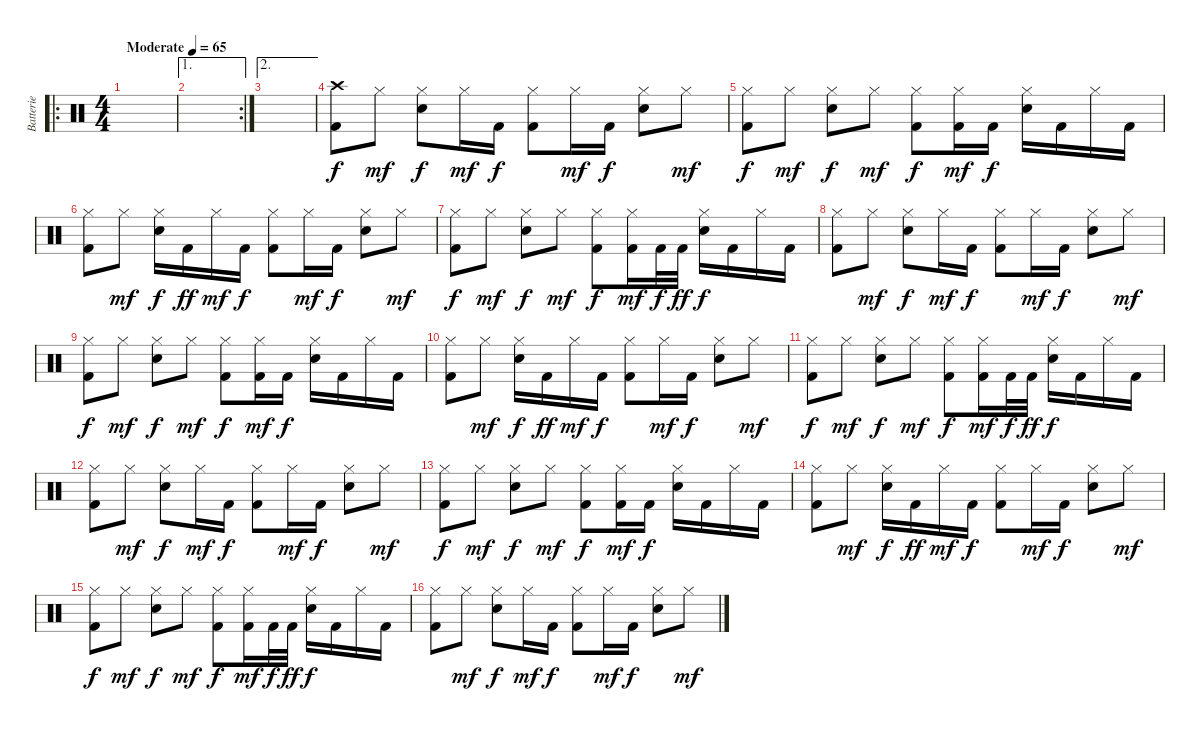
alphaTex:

\track ("Batterie" "Batterie") {instrument percussion}
\staff {score}
\articulation defaults
\ro
\ts (4 4)
\tempo (65 "Moderate")
\clef neutral
\ks c
|
\ae 1
\rc 2
|
\ae 2
|
("Crash high (hit)" "Kick (hit) 2").8 "Hi-Hat (closed)".8{dy mf} ("Hi-Hat (closed)" "Electric Snare (hit)").8{dy f} "Hi-Hat (closed)".16{dy mf} "Kick (hit) 2".16{dy f} ("Hi-Hat (closed)" "Kick (hit) 2").8 "Hi-Hat (closed)".16{dy mf} "Kick (hit) 2".16{dy f} ("Hi-Hat (closed)" "Electric Snare (hit)").8 "Hi-Hat (closed)".8{dy mf} |
("Hi-Hat (closed)" "Kick (hit) 2").8{dy f} "Hi-Hat (closed)".8{dy mf} ("Hi-Hat (closed)" "Electric Snare (hit)").8{dy f} "Hi-Hat (closed)".8{dy mf} ("Hi-Hat (closed)" "Kick (hit) 2").8{dy f} ("Hi-Hat (closed)" "Kick (hit) 2").16{dy mf} "Kick (hit) 2".16{dy f} ("Hi-Hat (closed)" "Electric Snare (hit)").16 "Kick (hit) 2".16 "Hi-Hat (closed)".16 "Kick (hit) 2".16 |
("Hi-Hat (closed)" "Kick (hit) 2").8 "Hi-Hat (closed)".8{dy mf} ("Hi-Hat (closed)" "Electric Snare (hit)").16{dy f} "Kick (hit) 2".16{dy ff} "Hi-Hat (closed)".16{dy mf} "Kick (hit) 2".16{dy f} ("Hi-Hat (closed)" "Kick (hit) 2").8 "Hi-Hat (closed)".16{dy mf} "Kick (hit) 2".16{dy f} ("Hi-Hat (closed)" "Electric Snare (hit)").8 "Hi-Hat (closed)".8{dy mf} |
("Hi-Hat (closed)" "Kick (hit) 2").8{dy f} "Hi-Hat (closed)".8{dy mf} ("Hi-Hat (closed)" "Electric Snare (hit)").8{dy f} "Hi-Hat (closed)".8{dy mf} ("Hi-Hat (closed)" "Kick (hit) 2").8{dy f} ("Hi-Hat (closed)" "Kick (hit) 2").16{dy mf} "Kick (hit) 2".32{dy f} "Kick (hit) 2".32{dy ff} ("Hi-Hat (closed)" "Electric Snare (hit)").16{dy f} "Kick (hit) 2".16 "Hi-Hat (closed)".16 "Kick (hit) 2".16 |
("Hi-Hat (closed)" "Kick (hit) 2").8 "Hi-Hat (closed)".8{dy mf} ("Hi-Hat (closed)" "Electric Snare (hit)").8{dy f} "Hi-Hat (closed)".16{dy mf} "Kick (hit) 2".16{dy f} ("Hi-Hat (closed)" "Kick (hit) 2").8 "Hi-Hat (closed)".16{dy mf} "Kick (hit) 2".16{dy f} ("Hi-Hat (closed)" "Electric Snare (hit)").8 "Hi-Hat (closed)".8{dy mf} |
("Hi-Hat (closed)" "Kick (hit) 2").8{dy f} "Hi-Hat (closed)".8{dy mf} ("Hi-Hat (closed)" "Electric Snare (hit)").8{dy f} "Hi-Hat (closed)".8{dy mf} ("Hi-Hat (closed)" "Kick (hit) 2").8{dy f} ("Hi-Hat (closed)" "Kick (hit) 2").16{dy mf} "Kick (hit) 2".16{dy f} ("Hi-Hat (closed)" "Electric Snare (hit)").16 "Kick (hit) 2".16 "Hi-Hat (closed)".16 "Kick (hit) 2".16 |
("Hi-Hat (closed)" "Kick (hit) 2").8 "Hi-Hat (closed)".8{dy mf} ("Hi-Hat (closed)" "Electric Snare (hit)").16{dy f} "Kick (hit) 2".16{dy ff} "Hi-Hat (closed)".16{dy mf} "Kick (hit) 2".16{dy f} ("Hi-Hat (closed)" "Kick (hit) 2").8 "Hi-Hat (closed)".16{dy mf} "Kick (hit) 2".16{dy f} ("Hi-Hat (closed)" "Electric Snare (hit)").8 "Hi-Hat (closed)".8{dy mf} |
("Hi-Hat (closed)" "Kick (hit) 2").8{dy f} "Hi-Hat (closed)".8{dy mf} ("Hi-Hat (closed)" "Electric Snare (hit)").8{dy f} "Hi-Hat (closed)".8{dy mf} ("Hi-Hat (closed)" "Kick (hit) 2").8{dy f} ("Hi-Hat (closed)" "Kick (hit) 2").16{dy mf} "Kick (hit) 2".32{dy f} "Kick (hit) 2".32{dy ff} ("Hi-Hat (closed)" "Electric Snare (hit)").16{dy f} "Kick (hit) 2".16 "Hi-Hat (closed)".16 "Kick (hit) 2".16 |
("Hi-Hat (closed)" "Kick (hit) 2").8 "Hi-Hat (closed)".8{dy mf} ("Hi-Hat (closed)" "Electric Snare (hit)").8{dy f} "Hi-Hat (closed)".16{dy mf} "Kick (hit) 2".16{dy f} ("Hi-Hat (closed)" "Kick (hit) 2").8 "Hi-Hat (closed)".16{dy mf} "Kick (hit) 2".16{dy f} ("Hi-Hat (closed)" "Electric Snare (hit)").8 "Hi-Hat (closed)".8{dy mf} |
("Hi-Hat (closed)" "Kick (hit) 2").8{dy f} "Hi-Hat (closed)".8{dy mf} ("Hi-Hat (closed)" "Electric Snare (hit)").8{dy f} "Hi-Hat (closed)".8{dy mf} ("Hi-Hat (closed)" "Kick (hit) 2").8{dy f} ("Hi-Hat (closed)" "Kick (hit) 2").16{dy mf} "Kick (hit) 2".16{dy f} ("Hi-Hat (closed)" "Electric Snare (hit)").16 "Kick (hit) 2".16 "Hi-Hat (closed)".16 "Kick (hit) 2".16 |
("Hi-Hat (closed)" "Kick (hit) 2").8 "Hi-Hat (closed)".8{dy mf} ("Hi-Hat (closed)" "Electric Snare (hit)").16{dy f} "Kick (hit) 2".16{dy ff} "Hi-Hat (closed)".16{dy mf} "Kick (hit) 2".16{dy f} ("Hi-Hat (closed)" "Kick (hit) 2").8 "Hi-Hat (closed)".16{dy mf} "Kick (hit) 2".16{dy f} ("Hi-Hat (closed)" "Electric Snare (hit)").8 "Hi-Hat (closed)".8{dy mf} |
("Hi-Hat (closed)" "Kick (hit) 2").8{dy f} "Hi-Hat (closed)".8{dy mf} ("Hi-Hat (closed)" "Electric Snare (hit)").8{dy f} "Hi-Hat (closed)".8{dy mf} ("Hi-Hat (closed)" "Kick (hit) 2").8{dy f} ("Hi-Hat (closed)" "Kick (hit) 2").16{dy mf} "Kick (hit) 2".32{dy f} "Kick (hit) 2".32{dy ff} ("Hi-Hat (closed)" "Electric Snare (hit)").16{dy f} "Kick (hit) 2".16 "Hi-Hat (closed)".16 "Kick (hit) 2".16 |
("Hi-Hat (closed)" "Kick (hit) 2").8 "Hi-Hat (closed)".8{dy mf} ("Hi-Hat (closed)" "Electric Snare (hit)").8{dy f} "Hi-Hat (closed)".16{dy mf} "Kick (hit) 2".16{dy f} ("Hi-Hat (closed)" "Kick (hit) 2").8 "Hi-Hat (closed)".16{dy mf} "Kick (hit) 2".16{dy f} ("Hi-Hat (closed)" "Electric Snare (hit)").8 "Hi-Hat (closed)".8{dy mf}
